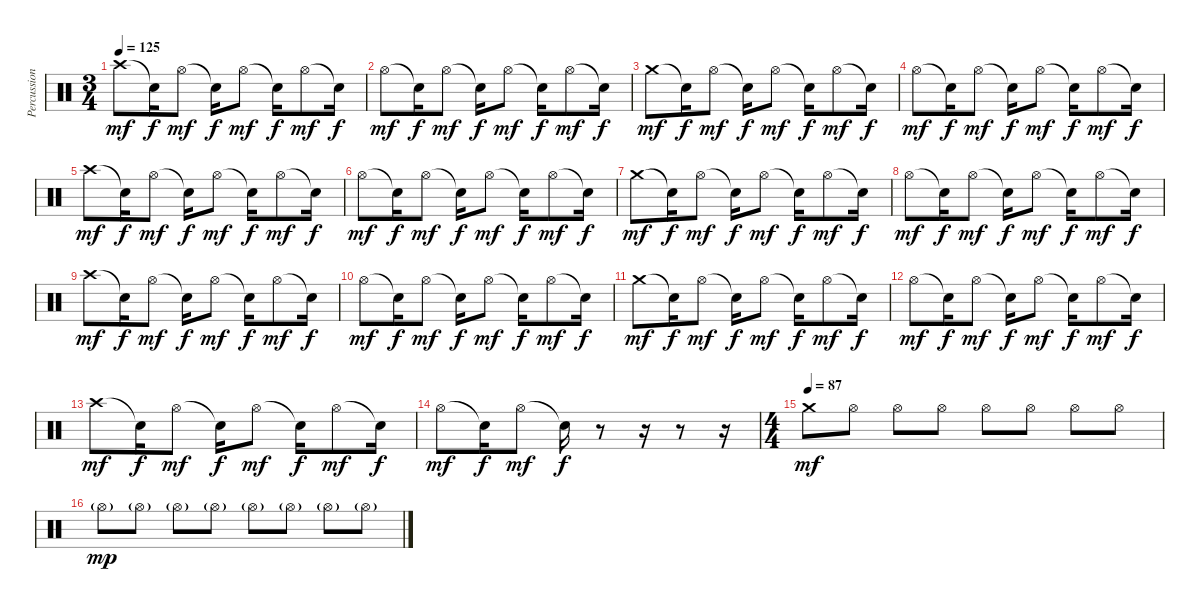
\track ("Percussion2" "Percussion") {instrument percussion}
\staff {score}
\articulation defaults
\ts (3 4)
\tempo 125
\clef neutral
\ks c "Crash high (hit)".8{dy mf} "Snare (hit)"{t}.16{dy f} "Hi-Hat (open)".8{dy mf} "Snare (hit)"{t}.16{dy f} "Hi-Hat (open)".8{dy mf} "Snare (hit)"{t}.16{dy f} "Hi-Hat (open)".8{dy mf} "Snare (hit)"{t}.16{dy f}
|
"Hi-Hat (open)".8{dy mf} "Snare (hit)"{t}.16{dy f} "Hi-Hat (open)".8{dy mf} "Snare (hit)"{t}.16{dy f} "Hi-Hat (open)".8{dy mf} "Snare (hit)"{t}.16{dy f} "Hi-Hat (open)".8{dy mf} "Snare (hit)"{t}.16{dy f} |
"Crash medium (hit)".8{dy mf} "Snare (hit)"{t}.16{dy f} "Hi-Hat (open)".8{dy mf} "Snare (hit)"{t}.16{dy f} "Hi-Hat (open)".8{dy mf} "Snare (hit)"{t}.16{dy f} "Hi-Hat (open)".8{dy mf} "Snare (hit)"{t}.16{dy f} |
"Hi-Hat (open)".8{dy mf} "Snare (hit)"{t}.16{dy f} "Hi-Hat (open)".8{dy mf} "Snare (hit)"{t}.16{dy f} "Hi-Hat (open)".8{dy mf} "Snare (hit)"{t}.16{dy f} "Hi-Hat (open)".8{dy mf} "Snare (hit)"{t}.16{dy f} |
"Crash high (hit)".8{dy mf} "Snare (hit)"{t}.16{dy f} "Hi-Hat (open)".8{dy mf} "Snare (hit)"{t}.16{dy f} "Hi-Hat (open)".8{dy mf} "Snare (hit)"{t}.16{dy f} "Hi-Hat (open)".8{dy mf} "Snare (hit)"{t}.16{dy f} |
"Hi-Hat (open)".8{dy mf} "Snare (hit)"{t}.16{dy f} "Hi-Hat (open)".8{dy mf} "Snare (hit)"{t}.16{dy f} "Hi-Hat (open)".8{dy mf} "Snare (hit)"{t}.16{dy f} "Hi-Hat (open)".8{dy mf} "Snare (hit)"{t}.16{dy f} |
"Crash medium (hit)".8{dy mf} "Snare (hit)"{t}.16{dy f} "Hi-Hat (open)".8{dy mf} "Snare (hit)"{t}.16{dy f} "Hi-Hat (open)".8{dy mf} "Snare (hit)"{t}.16{dy f} "Hi-Hat (open)".8{dy mf} "Snare (hit)"{t}.16{dy f} |
"Hi-Hat (open)".8{dy mf} "Snare (hit)"{t}.16{dy f} "Hi-Hat (open)".8{dy mf} "Snare (hit)"{t}.16{dy f} "Hi-Hat (open)".8{dy mf} "Snare (hit)"{t}.16{dy f} "Hi-Hat (open)".8{dy mf} "Snare (hit)"{t}.16{dy f} |
"Crash high (hit)".8{dy mf} "Snare (hit)"{t}.16{dy f} "Hi-Hat (open)".8{dy mf} "Snare (hit)"{t}.16{dy f} "Hi-Hat (open)".8{dy mf} "Snare (hit)"{t}.16{dy f} "Hi-Hat (open)".8{dy mf} "Snare (hit)"{t}.16{dy f} |
"Hi-Hat (open)".8{dy mf} "Snare (hit)"{t}.16{dy f} "Hi-Hat (open)".8{dy mf} "Snare (hit)"{t}.16{dy f} "Hi-Hat (open)".8{dy mf} "Snare (hit)"{t}.16{dy f} "Hi-Hat (open)".8{dy mf} "Snare (hit)"{t}.16{dy f} |
"Crash medium (hit)".8{dy mf} "Snare (hit)"{t}.16{dy f} "Hi-Hat (open)".8{dy mf} "Snare (hit)"{t}.16{dy f} "Hi-Hat (open)".8{dy mf} "Snare (hit)"{t}.16{dy f} "Hi-Hat (open)".8{dy mf} "Snare (hit)"{t}.16{dy f} |
"Hi-Hat (open)".8{dy mf} "Snare (hit)"{t}.16{dy f} "Hi-Hat (open)".8{dy mf} "Snare (hit)"{t}.16{dy f} "Hi-Hat (open)".8{dy mf} "Snare (hit)"{t}.16{dy f} "Hi-Hat (open)".8{dy mf} "Snare (hit)"{t}.16{dy f} |
"Crash high (hit)".8{dy mf} "Snare (hit)"{t}.16{dy f} "Hi-Hat (open)".8{dy mf} "Snare (hit)"{t}.16{dy f} "Hi-Hat (open)".8{dy mf} "Snare (hit)"{t}.16{dy f} "Hi-Hat (open)".8{dy mf} "Snare (hit)"{t}.16{dy f} |
"Hi-Hat (open)".8{dy mf} "Snare (hit)"{t}.16{dy f} "Hi-Hat (open)".8{dy mf} "Snare (hit)"{t}.16{dy f} r.8 r.16 r.8 r.16 |
\ts (4 4)
\tempo (87)
"Crash medium (hit)".8{dy mf} "Hi-Hat (open)".8 "Hi-Hat (open)".8 "Hi-Hat (open)".8 "Hi-Hat (open)".8 "Hi-Hat (open)".8 "Hi-Hat (open)".8 "Hi-Hat (open)".8 |
"Hi-Hat (open)"{g}.8{dy mp} "Hi-Hat (open)"{g}.8 "Hi-Hat (open)"{g}.8 "Hi-Hat (open)"{g}.8 "Hi-Hat (open)"{g}.8 "Hi-Hat (open)"{g}.8 "Hi-Hat (open)"{g}.8 "Hi-Hat (open)"{g}.8
